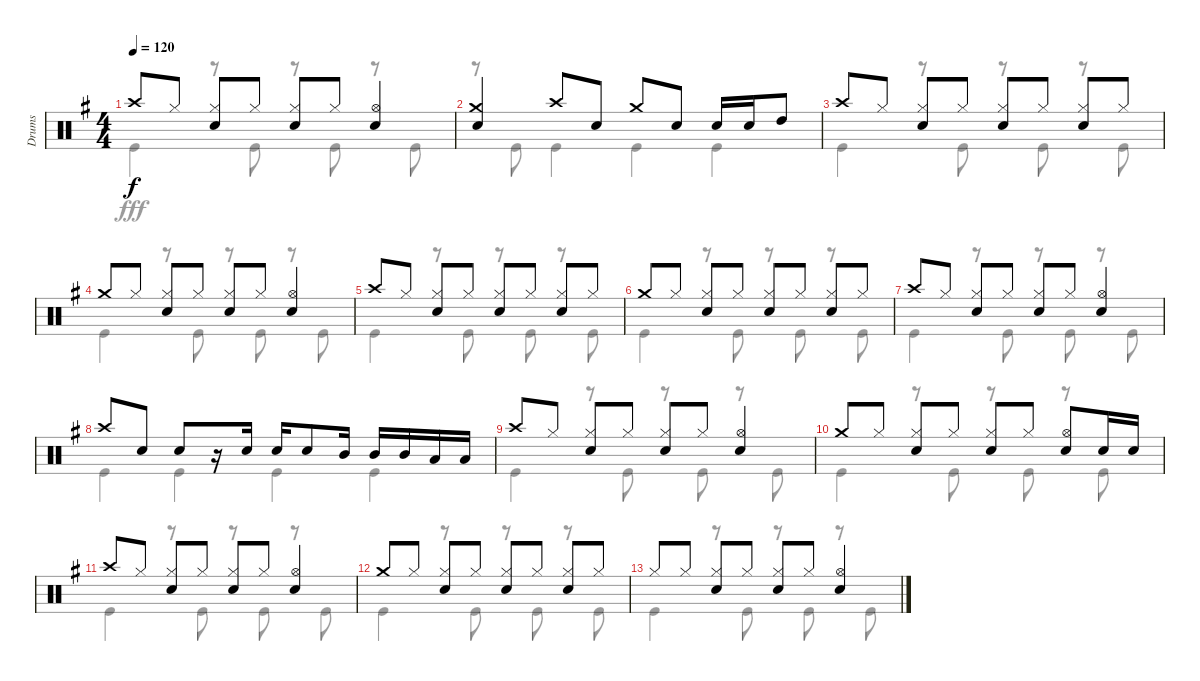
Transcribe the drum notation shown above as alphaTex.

\track ("Drums" "Drums") {instrument percussion}
\staff {score}
\articulation defaults
\voice
\ts (4 4)
\tempo 120
\clef neutral
\ks g "Crash high (hit)".8{dy f} "Hi-Hat (closed)".8
("Hi-Hat (closed)" "Snare (hit) 2").8 "Hi-Hat (closed)".8 ("Hi-Hat (closed)" "Snare (hit) 2").8 "Hi-Hat (closed)".8 ("Hi-Hat (open)" "Snare (hit) 2").4 |
("Crash medium (hit)" "Snare (hit) 2").4 "Crash high (hit)".8 "Snare (hit) 2".8 "Crash medium (hit)".8 "Snare (hit) 2".8 "Snare (hit) 2".16 "Snare (hit) 2".16 "High Tom (hit)".8 |
"Crash high (hit)".8 "Hi-Hat (closed)".8 ("Hi-Hat (closed)" "Snare (hit) 2").8 "Hi-Hat (closed)".8 ("Hi-Hat (closed)" "Snare (hit) 2").8 "Hi-Hat (closed)".8 ("Hi-Hat (closed)" "Snare (hit) 2").8 "Hi-Hat (closed)".8 |
"Crash medium (hit)".8 "Hi-Hat (closed)".8 ("Hi-Hat (closed)" "Snare (hit) 2").8 "Hi-Hat (closed)".8 ("Hi-Hat (closed)" "Snare (hit) 2").8 "Hi-Hat (closed)".8 ("Hi-Hat (open)" "Snare (hit) 2").4 |
"Crash high (hit)".8 "Hi-Hat (closed)".8 ("Hi-Hat (closed)" "Snare (hit) 2").8 "Hi-Hat (closed)".8 ("Hi-Hat (closed)" "Snare (hit) 2").8 "Hi-Hat (closed)".8 ("Hi-Hat (closed)" "Snare (hit) 2").8 "Hi-Hat (closed)".8 |
"Crash medium (hit)".8 "Hi-Hat (closed)".8 ("Hi-Hat (closed)" "Snare (hit) 2").8 "Hi-Hat (closed)".8 ("Hi-Hat (closed)" "Snare (hit) 2").8 "Hi-Hat (closed)".8 ("Hi-Hat (closed)" "Snare (hit) 2").8 "Hi-Hat (closed)".8 |
"Crash high (hit)".8 "Hi-Hat (closed)".8 ("Hi-Hat (closed)" "Snare (hit) 2").8 "Hi-Hat (closed)".8 ("Hi-Hat (closed)" "Snare (hit) 2").8 "Hi-Hat (closed)".8 ("Hi-Hat (open)" "Snare (hit) 2").4 |
"Crash high (hit)".8 "Snare (hit) 2".8 "Snare (hit) 2".8 r.16 "Snare (hit) 2".16 "Snare (hit) 2".16 "Snare (hit) 2".8 "Mid Tom (hit)".16 "Mid Tom (hit)".16 "Mid Tom (hit)".16 "Low Tom (hit)".16 "Low Tom (hit)".16 |
"Crash high (hit)".8 "Hi-Hat (closed)".8 ("Hi-Hat (closed)" "Snare (hit) 2").8 "Hi-Hat (closed)".8 ("Hi-Hat (closed)" "Snare (hit) 2").8 "Hi-Hat (closed)".8 ("Hi-Hat (open)" "Snare (hit) 2").4 |
"Crash medium (hit)".8 "Hi-Hat (closed)".8 ("Hi-Hat (closed)" "Snare (hit) 2").8 "Hi-Hat (closed)".8 ("Hi-Hat (closed)" "Snare (hit) 2").8 "Hi-Hat (closed)".8 ("Hi-Hat (open)" "Snare (hit) 2").8 "Snare (hit) 2".16 "Snare (hit) 2".16 |
"Crash high (hit)".8 "Hi-Hat (closed)".8 ("Hi-Hat (closed)" "Snare (hit) 2").8 "Hi-Hat (closed)".8 ("Hi-Hat (closed)" "Snare (hit) 2").8 "Hi-Hat (closed)".8 ("Hi-Hat (open)" "Snare (hit) 2").4 |
"Crash medium (hit)".8 "Hi-Hat (closed)".8 ("Hi-Hat (closed)" "Snare (hit) 2").8 "Hi-Hat (closed)".8 ("Hi-Hat (closed)" "Snare (hit) 2").8 "Hi-Hat (closed)".8 ("Hi-Hat (closed)" "Snare (hit) 2").8 "Hi-Hat (closed)".8 |
"Hi-Hat (closed)".8 "Hi-Hat (closed)".8 ("Hi-Hat (closed)" "Snare (hit) 2").8 "Hi-Hat (closed)".8 ("Hi-Hat (closed)" "Snare (hit) 2").8 "Hi-Hat (closed)".8 ("Hi-Hat (open)" "Snare (hit) 2").4
\voice
\clef neutral
\ottava regular
\simile none
\ks g "Kick (hit)".4{dy fff}
r.8 "Kick (hit)".8 r.8 "Kick (hit)".8 r.8 "Kick (hit)".8 |
r.8 "Kick (hit)".8 "Kick (hit)".4 "Kick (hit)".4 "Kick (hit)".4 |
"Kick (hit)".4 r.8 "Kick (hit)".8 r.8 "Kick (hit)".8 r.8 "Kick (hit)".8 |
"Kick (hit)".4 r.8 "Kick (hit)".8 r.8 "Kick (hit)".8 r.8 "Kick (hit)".8 |
"Kick (hit)".4 r.8 "Kick (hit)".8 r.8 "Kick (hit)".8 r.8 "Kick (hit)".8 |
"Kick (hit)".4 r.8 "Kick (hit)".8 r.8 "Kick (hit)".8 r.8 "Kick (hit)".8 |
"Kick (hit)".4 r.8 "Kick (hit)".8 r.8 "Kick (hit)".8 r.8 "Kick (hit)".8 |
"Kick (hit)".4 "Kick (hit)".4 "Kick (hit)".4 "Kick (hit)".4 |
"Kick (hit)".4 r.8 "Kick (hit)".8 r.8 "Kick (hit)".8 r.8 "Kick (hit)".8 |
"Kick (hit)".4 r.8 "Kick (hit)".8 r.8 "Kick (hit)".8 r.8 "Kick (hit)".8 |
"Kick (hit)".4 r.8 "Kick (hit)".8 r.8 "Kick (hit)".8 r.8 "Kick (hit)".8 |
"Kick (hit)".4 r.8 "Kick (hit)".8 r.8 "Kick (hit)".8 r.8 "Kick (hit)".8 |
"Kick (hit)".4 r.8 "Kick (hit)".8 r.8 "Kick (hit)".8 r.8 "Kick (hit)".8
